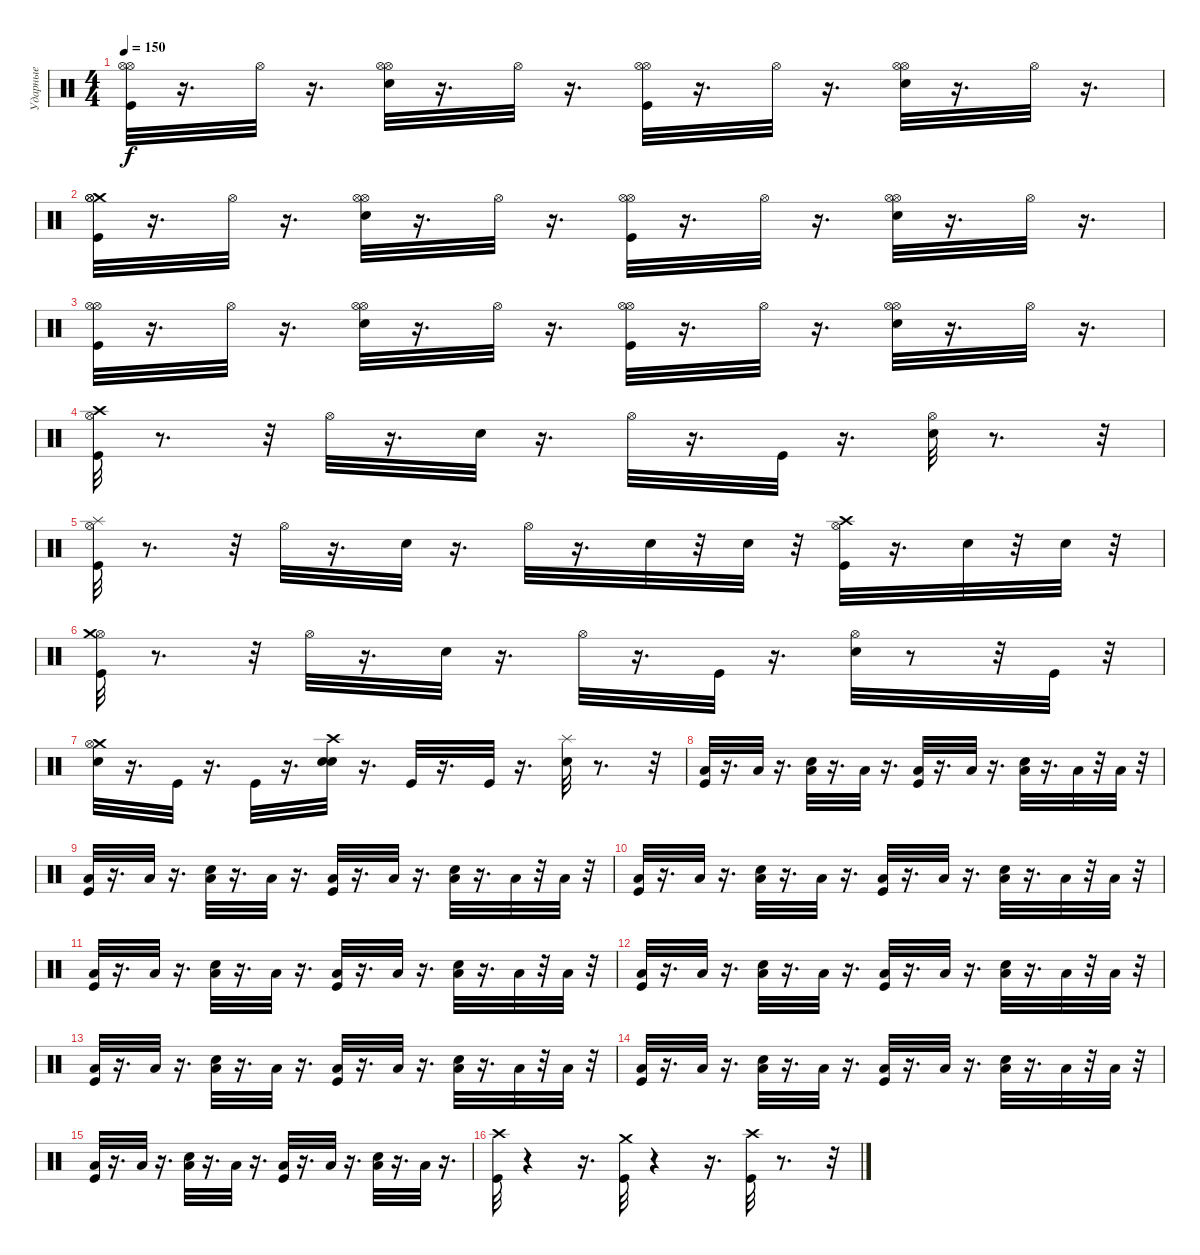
\track ("Ударные" "Ударные") {instrument percussion}
\staff {score}
\articulation defaults
\ts (4 4)
\tempo 150
\clef neutral
\ks c
("Kick (hit)" "Hi-Hat (open)" "Hi-Hat (open)").32{dy f} r.16{d} "Hi-Hat (open)".32 r.16{d} ("Snare (hit) 2" "Hi-Hat (open)" "Hi-Hat (open)").32 r.16{d} "Hi-Hat (open)".32 r.16{d} ("Hi-Hat (open)" "Kick (hit)" "Hi-Hat (open)").32 r.16{d} "Hi-Hat (open)".32 r.16{d} ("Hi-Hat (open)" "Snare (hit) 2" "Hi-Hat (open)").32 r.16{d} "Hi-Hat (open)".32 r.16{d} |
("Crash medium (hit)" "Kick (hit)" "Hi-Hat (open)" "Hi-Hat (open)").32 r.16{d} "Hi-Hat (open)".32 r.16{d} ("Hi-Hat (open)" "Hi-Hat (open)" "Snare (hit) 2").32 r.16{d} "Hi-Hat (open)".32 r.16{d} ("Kick (hit)" "Hi-Hat (open)" "Hi-Hat (open)").32 r.16{d} "Hi-Hat (open)".32 r.16{d} ("Snare (hit) 2" "Hi-Hat (open)" "Hi-Hat (open)").32 r.16{d} "Hi-Hat (open)".32 r.16{d} |
("Kick (hit)" "Hi-Hat (open)" "Hi-Hat (open)").32 r.16{d} "Hi-Hat (open)".32 r.16{d} ("Hi-Hat (open)" "Snare (hit) 2" "Hi-Hat (open)").32 r.16{d} "Hi-Hat (open)".32 r.16{d} ("Kick (hit)" "Hi-Hat (open)" "Hi-Hat (open)").32 r.16{d} "Hi-Hat (open)".32 r.16{d} ("Snare (hit) 2" "Hi-Hat (open)" "Hi-Hat (open)").32 r.16{d} "Hi-Hat (open)".32 r.16{d} |
("Hi-Hat (open)" "Kick (hit)" "Crash high (hit)").32 r.8{d} r.32 "Hi-Hat (open)".32 r.16{d} "Snare (hit) 2".32 r.16{d} "Hi-Hat (open)".32 r.16{d} "Kick (hit)".32 r.16{d} ("Hi-Hat (open)" "Snare (hit) 2").32 r.8{d} r.32 |
("Hi-Hat (open)" "Splash (hit)" "Kick (hit)").32 r.8{d} r.32 "Hi-Hat (open)".32 r.16{d} "Snare (hit) 2".32 r.16{d} "Hi-Hat (open)".32 r.16{d} "Snare (hit) 2".32 r.32 "Snare (hit) 2".32 r.32 ("Hi-Hat (open)" "Crash high (hit)" "Kick (hit)").32 r.16{d} "Snare (hit) 2".32 r.32 "Snare (hit) 2".32 r.32 |
("Hi-Hat (open)" "Kick (hit)" "Crash medium (hit)").32 r.8{d} r.32 "Hi-Hat (open)".32 r.16{d} "Snare (hit) 2".32 r.16{d} "Hi-Hat (open)".32 r.16{d} "Kick (hit)".32 r.16{d} ("Snare (hit) 2" "Hi-Hat (open)").32 r.8 r.32 "Kick (hit)".32 r.32 |
("Crash medium (hit)" "Snare (hit) 2" "Hi-Hat (open)").32 r.16{d} "Kick (hit)".32 r.16{d} "Kick (hit)".32 r.16{d} ("Crash high (hit)" "Snare (hit) 2" "Snare (hit) 2").32 r.16{d} "Kick (hit)".32 r.16{d} "Kick (hit)".32 r.16{d} ("Splash (hit)" "Snare (hit) 2").32 r.8{d} r.32 |
("Kick (hit)" "Low Floor Tom (hit)").32 r.16{d} "Low Floor Tom (hit)".32 r.16{d} ("Low Floor Tom (hit)" "Snare (hit) 2").32 r.16{d} "Low Floor Tom (hit)".32 r.16{d} ("Kick (hit)" "Low Floor Tom (hit)").32 r.16{d} "Low Floor Tom (hit)".32 r.16{d} ("Low Floor Tom (hit)" "Snare (hit) 2").32 r.16{d} "Low Floor Tom (hit)".32 r.32 "Low Floor Tom (hit)".32 r.32 |
("Kick (hit)" "Low Floor Tom (hit)").32 r.16{d} "Low Floor Tom (hit)".32 r.16{d} ("Low Floor Tom (hit)" "Snare (hit) 2").32 r.16{d} "Low Floor Tom (hit)".32 r.16{d} ("Low Floor Tom (hit)" "Kick (hit)").32 r.16{d} "Low Floor Tom (hit)".32 r.16{d} ("Snare (hit) 2" "Low Floor Tom (hit)").32 r.16{d} "Low Floor Tom (hit)".32 r.32 "Low Floor Tom (hit)".32 r.32 |
("Kick (hit)" "Low Floor Tom (hit)").32 r.16{d} "Low Floor Tom (hit)".32 r.16{d} ("Low Floor Tom (hit)" "Snare (hit) 2").32 r.16{d} "Low Floor Tom (hit)".32 r.16{d} ("Kick (hit)" "Low Floor Tom (hit)").32 r.16{d} "Low Floor Tom (hit)".32 r.16{d} ("Low Floor Tom (hit)" "Snare (hit) 2").32 r.16{d} "Low Floor Tom (hit)".32 r.32 "Low Floor Tom (hit)".32 r.32 |
("Kick (hit)" "Low Floor Tom (hit)").32 r.16{d} "Low Floor Tom (hit)".32 r.16{d} ("Low Floor Tom (hit)" "Snare (hit) 2").32 r.16{d} "Low Floor Tom (hit)".32 r.16{d} ("Low Floor Tom (hit)" "Kick (hit)").32 r.16{d} "Low Floor Tom (hit)".32 r.16{d} ("Snare (hit) 2" "Low Floor Tom (hit)").32 r.16{d} "Low Floor Tom (hit)".32 r.32 "Low Floor Tom (hit)".32 r.32 |
("Kick (hit)" "Low Floor Tom (hit)").32 r.16{d} "Low Floor Tom (hit)".32 r.16{d} ("Low Floor Tom (hit)" "Snare (hit) 2").32 r.16{d} "Low Floor Tom (hit)".32 r.16{d} ("Kick (hit)" "Low Floor Tom (hit)").32 r.16{d} "Low Floor Tom (hit)".32 r.16{d} ("Low Floor Tom (hit)" "Snare (hit) 2").32 r.16{d} "Low Floor Tom (hit)".32 r.32 "Low Floor Tom (hit)".32 r.32 |
("Kick (hit)" "Low Floor Tom (hit)").32 r.16{d} "Low Floor Tom (hit)".32 r.16{d} ("Low Floor Tom (hit)" "Snare (hit) 2").32 r.16{d} "Low Floor Tom (hit)".32 r.16{d} ("Low Floor Tom (hit)" "Kick (hit)").32 r.16{d} "Low Floor Tom (hit)".32 r.16{d} ("Snare (hit) 2" "Low Floor Tom (hit)").32 r.16{d} "Low Floor Tom (hit)".32 r.32 "Low Floor Tom (hit)".32 r.32 |
("Kick (hit)" "Low Floor Tom (hit)").32 r.16{d} "Low Floor Tom (hit)".32 r.16{d} ("Low Floor Tom (hit)" "Snare (hit) 2").32 r.16{d} "Low Floor Tom (hit)".32 r.16{d} ("Kick (hit)" "Low Floor Tom (hit)").32 r.16{d} "Low Floor Tom (hit)".32 r.16{d} ("Low Floor Tom (hit)" "Snare (hit) 2").32 r.16{d} "Low Floor Tom (hit)".32 r.32 "Low Floor Tom (hit)".32 r.32 |
("Kick (hit)" "Low Floor Tom (hit)").32 r.16{d} "Low Floor Tom (hit)".32 r.16{d} ("Low Floor Tom (hit)" "Snare (hit) 2").32 r.16{d} "Low Floor Tom (hit)".32 r.16{d} ("Low Floor Tom (hit)" "Kick (hit)").32 r.16{d} "Low Floor Tom (hit)".32 r.16{d} ("Snare (hit) 2" "Low Floor Tom (hit)").32 r.16{d} "Low Floor Tom (hit)".32 r.16{d} |
("Crash high (hit)" "Kick (hit)").32 r.4 r.16{d} ("Kick (hit)" "Crash medium (hit)").32 r.4 r.16{d} ("Crash high (hit)" "Kick (hit)").32 r.8{d} r.32
